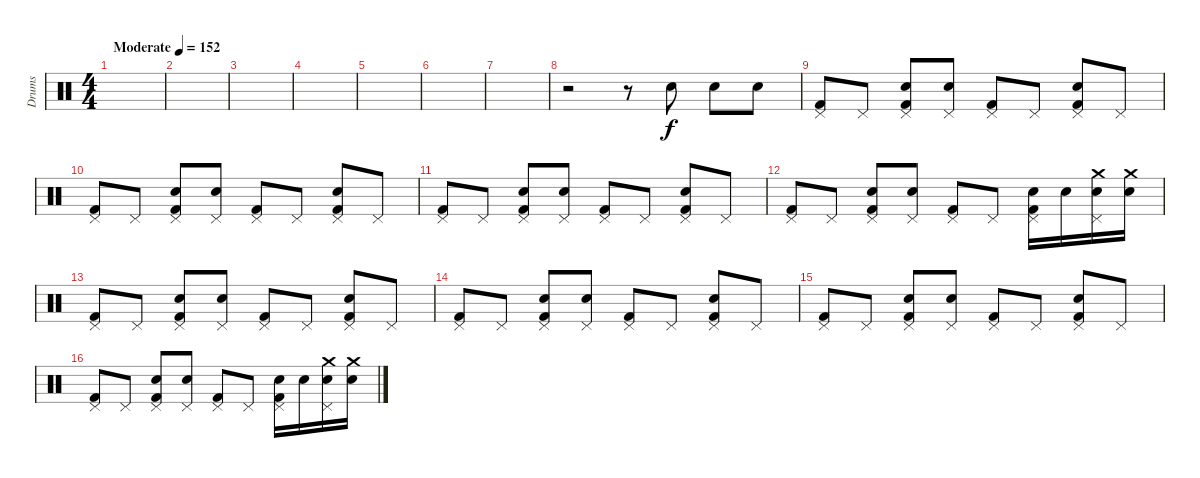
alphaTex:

\track ("Drums" "Drums") {instrument percussion}
\staff {score}
\articulation defaults
\ts (4 4)
\tempo (152 "Moderate")
\clef neutral
\ks c
|
|
|
|
|
|
|
r.2 r.8 "Snare (hit) 2".8 "Snare (hit) 2".8 "Snare (hit) 2".8 |
("Pedal Hi-Hat (hit)" "Kick (hit) 2").8 "Pedal Hi-Hat (hit)".8 ("Snare (hit) 2" "Pedal Hi-Hat (hit)" "Kick (hit) 2").8 ("Snare (hit) 2" "Pedal Hi-Hat (hit)").8 ("Pedal Hi-Hat (hit)" "Kick (hit) 2").8 "Pedal Hi-Hat (hit)".8 ("Snare (hit) 2" "Pedal Hi-Hat (hit)" "Kick (hit) 2").8 "Pedal Hi-Hat (hit)".8 |
("Pedal Hi-Hat (hit)" "Kick (hit) 2").8 "Pedal Hi-Hat (hit)".8 ("Snare (hit) 2" "Pedal Hi-Hat (hit)" "Kick (hit) 2").8 ("Snare (hit) 2" "Pedal Hi-Hat (hit)").8 ("Pedal Hi-Hat (hit)" "Kick (hit) 2").8 "Pedal Hi-Hat (hit)".8 ("Snare (hit) 2" "Pedal Hi-Hat (hit)" "Kick (hit) 2").8 "Pedal Hi-Hat (hit)".8 |
("Pedal Hi-Hat (hit)" "Kick (hit) 2").8 "Pedal Hi-Hat (hit)".8 ("Snare (hit) 2" "Pedal Hi-Hat (hit)" "Kick (hit) 2").8 ("Snare (hit) 2" "Pedal Hi-Hat (hit)").8 ("Pedal Hi-Hat (hit)" "Kick (hit) 2").8 "Pedal Hi-Hat (hit)".8 ("Snare (hit) 2" "Pedal Hi-Hat (hit)" "Kick (hit) 2").8 "Pedal Hi-Hat (hit)".8 |
("Pedal Hi-Hat (hit)" "Kick (hit) 2").8 "Pedal Hi-Hat (hit)".8 ("Snare (hit) 2" "Pedal Hi-Hat (hit)" "Kick (hit) 2").8 ("Snare (hit) 2" "Pedal Hi-Hat (hit)").8 ("Pedal Hi-Hat (hit)" "Kick (hit) 2").8 "Pedal Hi-Hat (hit)".8 ("Snare (hit) 2" "Pedal Hi-Hat (hit)" "Kick (hit) 2").16 "Snare (hit) 2".16 ("Crash medium (hit)" "Snare (hit) 2" "Pedal Hi-Hat (hit)").16 ("Crash medium (hit)" "Snare (hit) 2").16 |
("Pedal Hi-Hat (hit)" "Kick (hit) 2").8 "Pedal Hi-Hat (hit)".8 ("Snare (hit) 2" "Pedal Hi-Hat (hit)" "Kick (hit) 2").8 ("Snare (hit) 2" "Pedal Hi-Hat (hit)").8 ("Pedal Hi-Hat (hit)" "Kick (hit) 2").8 "Pedal Hi-Hat (hit)".8 ("Snare (hit) 2" "Pedal Hi-Hat (hit)" "Kick (hit) 2").8 "Pedal Hi-Hat (hit)".8 |
("Pedal Hi-Hat (hit)" "Kick (hit) 2").8 "Pedal Hi-Hat (hit)".8 ("Snare (hit) 2" "Pedal Hi-Hat (hit)" "Kick (hit) 2").8 ("Snare (hit) 2" "Pedal Hi-Hat (hit)").8 ("Pedal Hi-Hat (hit)" "Kick (hit) 2").8 "Pedal Hi-Hat (hit)".8 ("Snare (hit) 2" "Pedal Hi-Hat (hit)" "Kick (hit) 2").8 "Pedal Hi-Hat (hit)".8 |
("Pedal Hi-Hat (hit)" "Kick (hit) 2").8 "Pedal Hi-Hat (hit)".8 ("Snare (hit) 2" "Pedal Hi-Hat (hit)" "Kick (hit) 2").8 ("Snare (hit) 2" "Pedal Hi-Hat (hit)").8 ("Pedal Hi-Hat (hit)" "Kick (hit) 2").8 "Pedal Hi-Hat (hit)".8 ("Snare (hit) 2" "Pedal Hi-Hat (hit)" "Kick (hit) 2").8 "Pedal Hi-Hat (hit)".8 |
("Pedal Hi-Hat (hit)" "Kick (hit) 2").8 "Pedal Hi-Hat (hit)".8 ("Snare (hit) 2" "Pedal Hi-Hat (hit)" "Kick (hit) 2").8 ("Snare (hit) 2" "Pedal Hi-Hat (hit)").8 ("Pedal Hi-Hat (hit)" "Kick (hit) 2").8 "Pedal Hi-Hat (hit)".8 ("Snare (hit) 2" "Pedal Hi-Hat (hit)" "Kick (hit) 2").16 "Snare (hit) 2".16 ("Crash medium (hit)" "Snare (hit) 2" "Pedal Hi-Hat (hit)").16 ("Crash medium (hit)" "Snare (hit) 2").16
